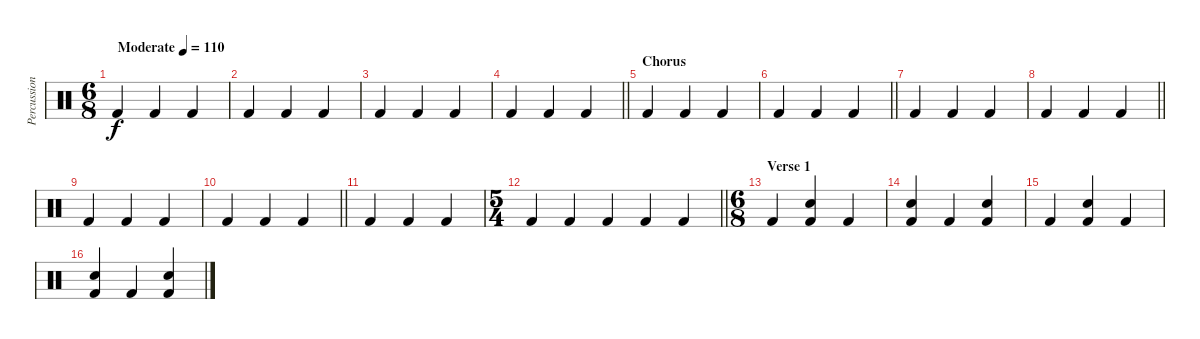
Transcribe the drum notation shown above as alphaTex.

\track ("Percussion" "Percussion") {instrument percussion}
\staff {score}
\articulation defaults
\ts (6 8)
\tempo (110 "Moderate")
\clef neutral
\ks c "Kick (hit) 2".4{dy f} "Kick (hit) 2".4 "Kick (hit) 2".4
|
"Kick (hit) 2".4 "Kick (hit) 2".4 "Kick (hit) 2".4 |
"Kick (hit) 2".4 "Kick (hit) 2".4 "Kick (hit) 2".4 |
\barLineRight lightlight "Kick (hit) 2".4 "Kick (hit) 2".4 "Kick (hit) 2".4
|
\section ("" "Chorus")
"Kick (hit) 2".4 "Kick (hit) 2".4 "Kick (hit) 2".4 |
\barLineRight lightlight "Kick (hit) 2".4 "Kick (hit) 2".4 "Kick (hit) 2".4
|
"Kick (hit) 2".4 "Kick (hit) 2".4 "Kick (hit) 2".4 |
\barLineRight lightlight "Kick (hit) 2".4 "Kick (hit) 2".4 "Kick (hit) 2".4
|
"Kick (hit) 2".4 "Kick (hit) 2".4 "Kick (hit) 2".4 |
\barLineRight lightlight "Kick (hit) 2".4 "Kick (hit) 2".4 "Kick (hit) 2".4
|
"Kick (hit) 2".4 "Kick (hit) 2".4 "Kick (hit) 2".4 |
\ts (5 4)
\barLineRight lightlight "Kick (hit) 2".4 "Kick (hit) 2".4 "Kick (hit) 2".4 "Kick (hit) 2".4 "Kick (hit) 2".4
|
\ts (6 8)
\section ("" "Verse 1")
"Kick (hit) 2".4 ("Snare (hit) 2" "Kick (hit) 2").4 "Kick (hit) 2".4 |
("Snare (hit) 2" "Kick (hit) 2").4 "Kick (hit) 2".4 ("Snare (hit) 2" "Kick (hit) 2").4 |
"Kick (hit) 2".4 ("Snare (hit) 2" "Kick (hit) 2").4 "Kick (hit) 2".4 |
("Snare (hit) 2" "Kick (hit) 2").4 "Kick (hit) 2".4 ("Snare (hit) 2" "Kick (hit) 2").4
